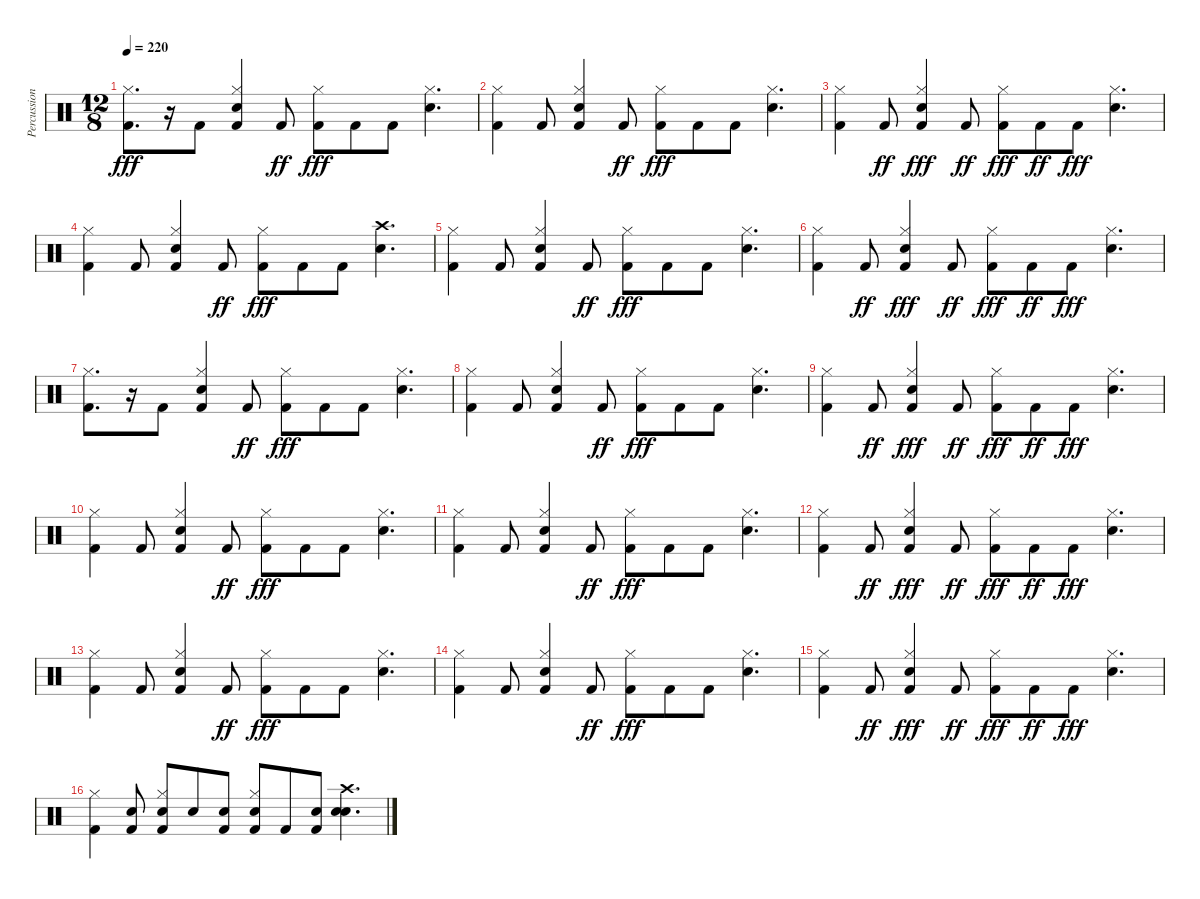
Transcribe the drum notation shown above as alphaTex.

\track ("Percussion" "Percussion") {instrument percussion}
\staff {score}
\articulation defaults
\ts (12 8)
\tempo 220
\clef neutral
\ks c
("Kick (hit) 2" "Hi-Hat (closed)").8{d dy fff} r.16 "Kick (hit) 2".8 ("Kick (hit) 2" "Snare (hit) 2" "Hi-Hat (closed)").4 "Kick (hit) 2".8{dy ff} ("Kick (hit) 2" "Hi-Hat (closed)").8{dy fff} "Kick (hit) 2".8 "Kick (hit) 2".8 ("Snare (hit) 2" "Hi-Hat (closed)").4{d} |
("Kick (hit) 2" "Hi-Hat (closed)").4 "Kick (hit) 2".8 ("Kick (hit) 2" "Snare (hit) 2" "Hi-Hat (closed)").4 "Kick (hit) 2".8{dy ff} ("Kick (hit) 2" "Hi-Hat (closed)").8{dy fff} "Kick (hit) 2".8 "Kick (hit) 2".8 ("Snare (hit) 2" "Hi-Hat (closed)").4{d} |
("Kick (hit) 2" "Hi-Hat (closed)").4 "Kick (hit) 2".8{dy ff} ("Kick (hit) 2" "Snare (hit) 2" "Hi-Hat (closed)").4{dy fff} "Kick (hit) 2".8{dy ff} ("Kick (hit) 2" "Hi-Hat (closed)").8{dy fff} "Kick (hit) 2".8{dy ff} "Kick (hit) 2".8{dy fff} ("Snare (hit) 2" "Hi-Hat (closed)").4{d} |
("Kick (hit) 2" "Hi-Hat (closed)").4 "Kick (hit) 2".8 ("Kick (hit) 2" "Snare (hit) 2" "Hi-Hat (closed)").4 "Kick (hit) 2".8{dy ff} ("Kick (hit) 2" "Hi-Hat (closed)").8{dy fff} "Kick (hit) 2".8 "Kick (hit) 2".8 ("Snare (hit) 2" "Crash high (hit)").4{d} |
("Kick (hit) 2" "Hi-Hat (closed)").4 "Kick (hit) 2".8 ("Kick (hit) 2" "Snare (hit) 2" "Hi-Hat (closed)").4 "Kick (hit) 2".8{dy ff} ("Kick (hit) 2" "Hi-Hat (closed)").8{dy fff} "Kick (hit) 2".8 "Kick (hit) 2".8 ("Snare (hit) 2" "Hi-Hat (closed)").4{d} |
("Kick (hit) 2" "Hi-Hat (closed)").4 "Kick (hit) 2".8{dy ff} ("Kick (hit) 2" "Snare (hit) 2" "Hi-Hat (closed)").4{dy fff} "Kick (hit) 2".8{dy ff} ("Kick (hit) 2" "Hi-Hat (closed)").8{dy fff} "Kick (hit) 2".8{dy ff} "Kick (hit) 2".8{dy fff} ("Snare (hit) 2" "Hi-Hat (closed)").4{d} |
("Kick (hit) 2" "Hi-Hat (closed)").8{d} r.16 "Kick (hit) 2".8 ("Kick (hit) 2" "Snare (hit) 2" "Hi-Hat (closed)").4 "Kick (hit) 2".8{dy ff} ("Kick (hit) 2" "Hi-Hat (closed)").8{dy fff} "Kick (hit) 2".8 "Kick (hit) 2".8 ("Snare (hit) 2" "Hi-Hat (closed)").4{d} |
("Kick (hit) 2" "Hi-Hat (closed)").4 "Kick (hit) 2".8 ("Kick (hit) 2" "Snare (hit) 2" "Hi-Hat (closed)").4 "Kick (hit) 2".8{dy ff} ("Kick (hit) 2" "Hi-Hat (closed)").8{dy fff} "Kick (hit) 2".8 "Kick (hit) 2".8 ("Snare (hit) 2" "Hi-Hat (closed)").4{d} |
("Kick (hit) 2" "Hi-Hat (closed)").4 "Kick (hit) 2".8{dy ff} ("Kick (hit) 2" "Snare (hit) 2" "Hi-Hat (closed)").4{dy fff} "Kick (hit) 2".8{dy ff} ("Kick (hit) 2" "Hi-Hat (closed)").8{dy fff} "Kick (hit) 2".8{dy ff} "Kick (hit) 2".8{dy fff} ("Snare (hit) 2" "Hi-Hat (closed)").4{d} |
("Kick (hit) 2" "Hi-Hat (closed)").4 "Kick (hit) 2".8 ("Kick (hit) 2" "Snare (hit) 2" "Hi-Hat (closed)").4 "Kick (hit) 2".8{dy ff} ("Kick (hit) 2" "Hi-Hat (closed)").8{dy fff} "Kick (hit) 2".8 "Kick (hit) 2".8 ("Snare (hit) 2" "Hi-Hat (closed)").4{d} |
("Kick (hit) 2" "Hi-Hat (closed)").4 "Kick (hit) 2".8 ("Kick (hit) 2" "Snare (hit) 2" "Hi-Hat (closed)").4 "Kick (hit) 2".8{dy ff} ("Kick (hit) 2" "Hi-Hat (closed)").8{dy fff} "Kick (hit) 2".8 "Kick (hit) 2".8 ("Snare (hit) 2" "Hi-Hat (closed)").4{d} |
("Kick (hit) 2" "Hi-Hat (closed)").4 "Kick (hit) 2".8{dy ff} ("Kick (hit) 2" "Snare (hit) 2" "Hi-Hat (closed)").4{dy fff} "Kick (hit) 2".8{dy ff} ("Kick (hit) 2" "Hi-Hat (closed)").8{dy fff} "Kick (hit) 2".8{dy ff} "Kick (hit) 2".8{dy fff} ("Snare (hit) 2" "Hi-Hat (closed)").4{d} |
("Kick (hit) 2" "Hi-Hat (closed)").4 "Kick (hit) 2".8 ("Kick (hit) 2" "Snare (hit) 2" "Hi-Hat (closed)").4 "Kick (hit) 2".8{dy ff} ("Kick (hit) 2" "Hi-Hat (closed)").8{dy fff} "Kick (hit) 2".8 "Kick (hit) 2".8 ("Snare (hit) 2" "Hi-Hat (closed)").4{d} |
("Kick (hit) 2" "Hi-Hat (closed)").4 "Kick (hit) 2".8 ("Kick (hit) 2" "Snare (hit) 2" "Hi-Hat (closed)").4 "Kick (hit) 2".8{dy ff} ("Kick (hit) 2" "Hi-Hat (closed)").8{dy fff} "Kick (hit) 2".8 "Kick (hit) 2".8 ("Snare (hit) 2" "Hi-Hat (closed)").4{d} |
("Kick (hit) 2" "Hi-Hat (closed)").4 "Kick (hit) 2".8{dy ff} ("Kick (hit) 2" "Snare (hit) 2" "Hi-Hat (closed)").4{dy fff} "Kick (hit) 2".8{dy ff} ("Kick (hit) 2" "Hi-Hat (closed)").8{dy fff} "Kick (hit) 2".8{dy ff} "Kick (hit) 2".8{dy fff} ("Snare (hit) 2" "Hi-Hat (closed)").4{d} |
("Kick (hit) 2" "Hi-Hat (closed)").4 ("Kick (hit) 2" "Snare (hit) 2").8 ("Kick (hit) 2" "Snare (hit) 2" "Hi-Hat (closed)").8 "Snare (hit) 2".8 ("Kick (hit) 2" "Snare (hit) 2").8 ("Kick (hit) 2" "Snare (hit) 2" "Hi-Hat (closed)").8 "Kick (hit) 2".8 ("Kick (hit) 2" "Snare (hit) 2").8 ("Snare (hit) 2" "Snare (hit) 2" "Crash high (hit)").4{d}
